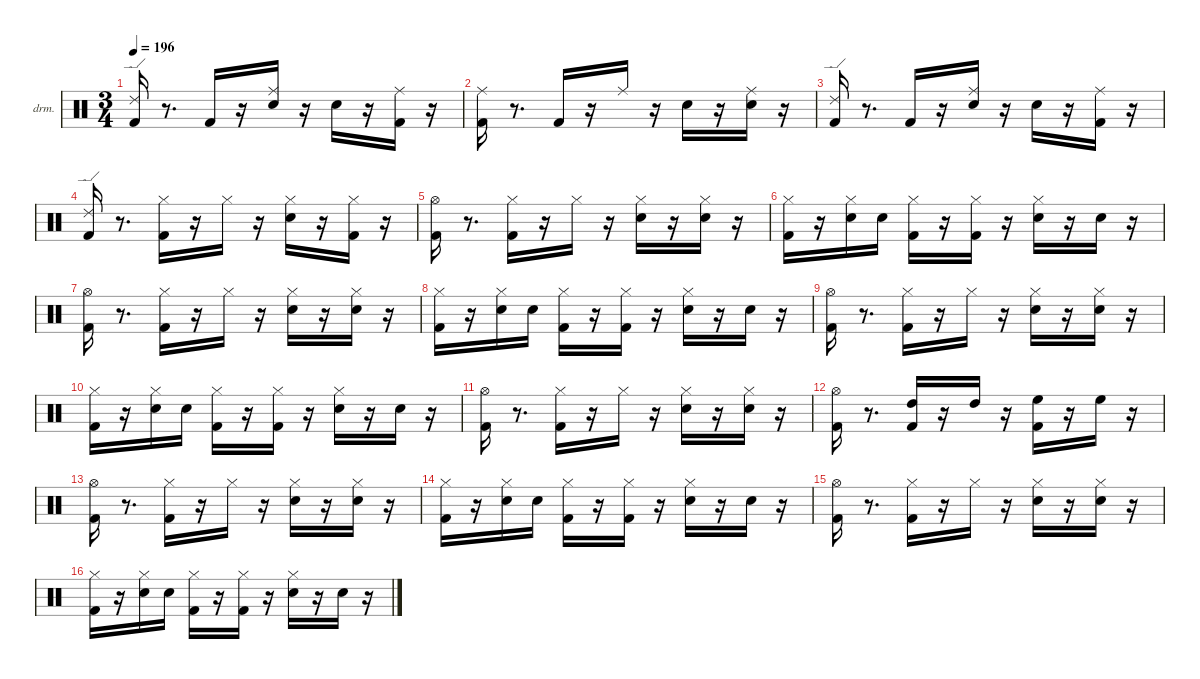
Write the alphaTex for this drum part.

\hideDynamics
\bracketExtendMode nobrackets
\firstSystemTrackNameOrientation horizontal
\otherSystemsTrackNameOrientation horizontal
\track ("EZdrummer 3" "drm.") {instrument percussion}
\staff {score}
\articulation defaults
\ts (3 4)
\tempo 196
\clef neutral
\ks aminor
("Kick (hit) 2" "Ride (edge) 2").16{dy fff beam Up} r.8{d beam Up} "Kick (hit) 2".16{dy ff beam Up} r.16{beam Up} ("Snare (hit) 2" "Ride (middle)"{acc #}).16{dy f beam Down} r.16{beam Down} "Snare (hit) 2".16{dy ppp beam Down} r.16{beam Down} ("Kick (hit) 2" "Ride (middle)"{acc #}).16{dy f beam Down} r.16{beam Down} |
("Kick (hit) 2" "Ride (middle)"{acc #}).16{dy fff beam Down} r.8{d beam Down} "Kick (hit) 2".16{dy ff beam Up} r.16{beam Up} "Ride (middle)"{acc #}.16{beam Down} r.16{beam Down} "Snare (hit) 2".16{dy f beam Down} r.16{beam Down} ("Snare (hit) 2" "Ride (middle)"{acc #}).16{dy ppp beam Down} r.16{beam Down} |
("Kick (hit) 2" "Ride (edge) 2").16{dy fff beam Up} r.8{d beam Up} "Kick (hit) 2".16{dy ff beam Up} r.16{beam Up} ("Snare (hit) 2" "Ride (middle)"{acc #}).16{dy f beam Down} r.16{beam Down} "Snare (hit) 2".16{dy ppp beam Down} r.16{beam Down} ("Kick (hit) 2" "Ride (middle)"{acc #}).16{dy f beam Down} r.16{beam Down} |
("Kick (hit) 2" "Ride (edge) 2").16{dy fff beam Up} r.8{d beam Up} ("Kick (hit) 2" "Hi-Hat (closed)"{acc #}).16{dy mf beam Down} r.16{beam Down} "Hi-Hat (closed)"{acc #}.16{beam Down} r.16{beam Down} ("Snare (hit) 2" "Hi-Hat (closed)"{acc #}).16{dy f beam Down} r.16{beam Down} ("Kick (hit) 2" "Hi-Hat (closed)"{acc #}).16{dy mp beam Down} r.16{beam Down} |
("Kick (hit) 2" "Hi-Hat (open)"{acc #}).16{dy ff beam Down} r.8{d beam Down} ("Kick (hit) 2" "Hi-Hat (closed)"{acc #}).16{dy f beam Down} r.16{beam Down} "Hi-Hat (closed)"{acc #}.16{dy ppp beam Down} r.16{beam Down} ("Snare (hit) 2" "Hi-Hat (closed)"{acc #}).16{dy f beam Down} r.16{beam Down} ("Snare (hit) 2" "Hi-Hat (closed)"{acc #}).16{dy ppp beam Down} r.16{beam Down} |
("Kick (hit) 2" "Hi-Hat (closed)"{acc #}).16{dy ff beam Down} r.16{beam Down} ("Snare (hit) 2" "Hi-Hat (closed)"{acc #}).16{dy mf beam Down} "Snare (hit) 2".16{dy pp beam Down} ("Kick (hit) 2" "Hi-Hat (closed)"{acc #}).16{dy f beam Down} r.16{beam Down} ("Kick (hit) 2" "Hi-Hat (closed)"{acc #}).16{dy ff beam Down} r.16{beam Down} ("Snare (hit) 2" "Hi-Hat (closed)"{acc #}).16{beam Down} r.16{beam Down} "Snare (hit) 2".16{dy mp beam Down} r.16{beam Down} |
("Kick (hit) 2" "Hi-Hat (open)"{acc #}).16{dy ff beam Down} r.8{d beam Down} ("Kick (hit) 2" "Hi-Hat (closed)"{acc #}).16{dy f beam Down} r.16{beam Down} "Hi-Hat (closed)"{acc #}.16{dy ppp beam Down} r.16{beam Down} ("Snare (hit) 2" "Hi-Hat (closed)"{acc #}).16{dy f beam Down} r.16{beam Down} ("Snare (hit) 2" "Hi-Hat (closed)"{acc #}).16{dy ppp beam Down} r.16{beam Down} |
("Kick (hit) 2" "Hi-Hat (closed)"{acc #}).16{dy ff beam Down} r.16{beam Down} ("Snare (hit) 2" "Hi-Hat (closed)"{acc #}).16{dy f beam Down} "Snare (hit) 2".16{dy pp beam Down} ("Kick (hit) 2" "Hi-Hat (closed)"{acc #}).16{dy mf beam Down} r.16{beam Down} ("Kick (hit) 2" "Hi-Hat (closed)"{acc #}).16{dy ff beam Down} r.16{beam Down} ("Snare (hit) 2" "Hi-Hat (closed)"{acc #}).16{beam Down} r.16{beam Down} "Snare (hit) 2".16{dy p beam Down} r.16{beam Down} |
("Kick (hit) 2" "Hi-Hat (open)"{acc #}).16{dy ff beam Down} r.8{d beam Down} ("Kick (hit) 2" "Hi-Hat (closed)"{acc #}).16{dy f beam Down} r.16{beam Down} "Hi-Hat (closed)"{acc #}.16{dy ppp beam Down} r.16{beam Down} ("Snare (hit) 2" "Hi-Hat (closed)"{acc #}).16{dy f beam Down} r.16{beam Down} ("Snare (hit) 2" "Hi-Hat (closed)"{acc #}).16{dy ppp beam Down} r.16{beam Down} |
("Kick (hit) 2" "Hi-Hat (closed)"{acc #}).16{dy ff beam Down} r.16{beam Down} ("Snare (hit) 2" "Hi-Hat (closed)"{acc #}).16{dy mf beam Down} "Snare (hit) 2".16{dy pp beam Down} ("Kick (hit) 2" "Hi-Hat (closed)"{acc #}).16{dy f beam Down} r.16{beam Down} ("Kick (hit) 2" "Hi-Hat (closed)"{acc #}).16{dy ff beam Down} r.16{beam Down} ("Snare (hit) 2" "Hi-Hat (closed)"{acc #}).16{beam Down} r.16{beam Down} "Snare (hit) 2".16{dy mp beam Down} r.16{beam Down} |
("Kick (hit) 2" "Hi-Hat (open)"{acc #}).16{dy ff beam Down} r.8{d beam Down} ("Kick (hit) 2" "Hi-Hat (closed)"{acc #}).16{dy f beam Down} r.16{beam Down} "Hi-Hat (closed)"{acc #}.16{dy ppp beam Down} r.16{beam Down} ("Snare (hit) 2" "Hi-Hat (closed)"{acc #}).16{dy mf beam Down} r.16{beam Down} ("Snare (hit) 2" "Hi-Hat (closed)"{acc #}).16{dy ppp beam Down} r.16{beam Down} |
("Kick (hit) 2" "Hi-Hat (open)"{acc #}).16{dy ff beam Down} r.8{d beam Down} ("Kick (hit) 2" "High Tom (hit)").16{dy mf beam Up} r.16{beam Up} "High Tom (hit)".16{beam Down} r.16{beam Down} ("Kick (hit) 2" "High Floor Tom (hit)").16{dy f beam Down} r.16{beam Down} "High Floor Tom (hit)".16{dy mf beam Down} r.16{beam Down} |
("Kick (hit) 2" "Hi-Hat (open)"{acc #}).16{dy ff beam Down} r.8{d beam Down} ("Kick (hit) 2" "Hi-Hat (closed)"{acc #}).16{dy f beam Down} r.16{beam Down} "Hi-Hat (closed)"{acc #}.16{dy ppp beam Down} r.16{beam Down} ("Snare (hit) 2" "Hi-Hat (closed)"{acc #}).16{dy f beam Down} r.16{beam Down} ("Snare (hit) 2" "Hi-Hat (closed)"{acc #}).16{dy pp beam Down} r.16{beam Down} |
("Kick (hit) 2" "Hi-Hat (closed)"{acc #}).16{dy ff beam Down} r.16{beam Down} ("Snare (hit) 2" "Hi-Hat (closed)"{acc #}).16{dy mf beam Down} "Snare (hit) 2".16{dy pp beam Down} ("Kick (hit) 2" "Hi-Hat (closed)"{acc #}).16{dy f beam Down} r.16{beam Down} ("Kick (hit) 2" "Hi-Hat (closed)"{acc #}).16{dy ff beam Down} r.16{beam Down} ("Snare (hit) 2" "Hi-Hat (closed)"{acc #}).16{beam Down} r.16{beam Down} "Snare (hit) 2".16{dy mp beam Down} r.16{beam Down} |
("Kick (hit) 2" "Hi-Hat (open)"{acc #}).16{dy ff beam Down} r.8{d beam Down} ("Kick (hit) 2" "Hi-Hat (closed)"{acc #}).16{dy f beam Down} r.16{beam Down} "Hi-Hat (closed)"{acc #}.16{dy ppp beam Down} r.16{beam Down} ("Snare (hit) 2" "Hi-Hat (closed)"{acc #}).16{dy f beam Down} r.16{beam Down} ("Snare (hit) 2" "Hi-Hat (closed)"{acc #}).16{dy ppp beam Down} r.16{beam Down} |
("Kick (hit) 2" "Hi-Hat (closed)"{acc #}).16{dy ff beam Down} r.16{beam Down} ("Snare (hit) 2" "Hi-Hat (closed)"{acc #}).16{dy f beam Down} "Snare (hit) 2".16{dy pp beam Down} ("Kick (hit) 2" "Hi-Hat (closed)"{acc #}).16{dy mf beam Down} r.16{beam Down} ("Kick (hit) 2" "Hi-Hat (closed)"{acc #}).16{dy ff beam Down} r.16{beam Down} ("Snare (hit) 2" "Hi-Hat (closed)"{acc #}).16{beam Down} r.16{beam Down} "Snare (hit) 2".16{dy p beam Down} r.16{beam Down}
